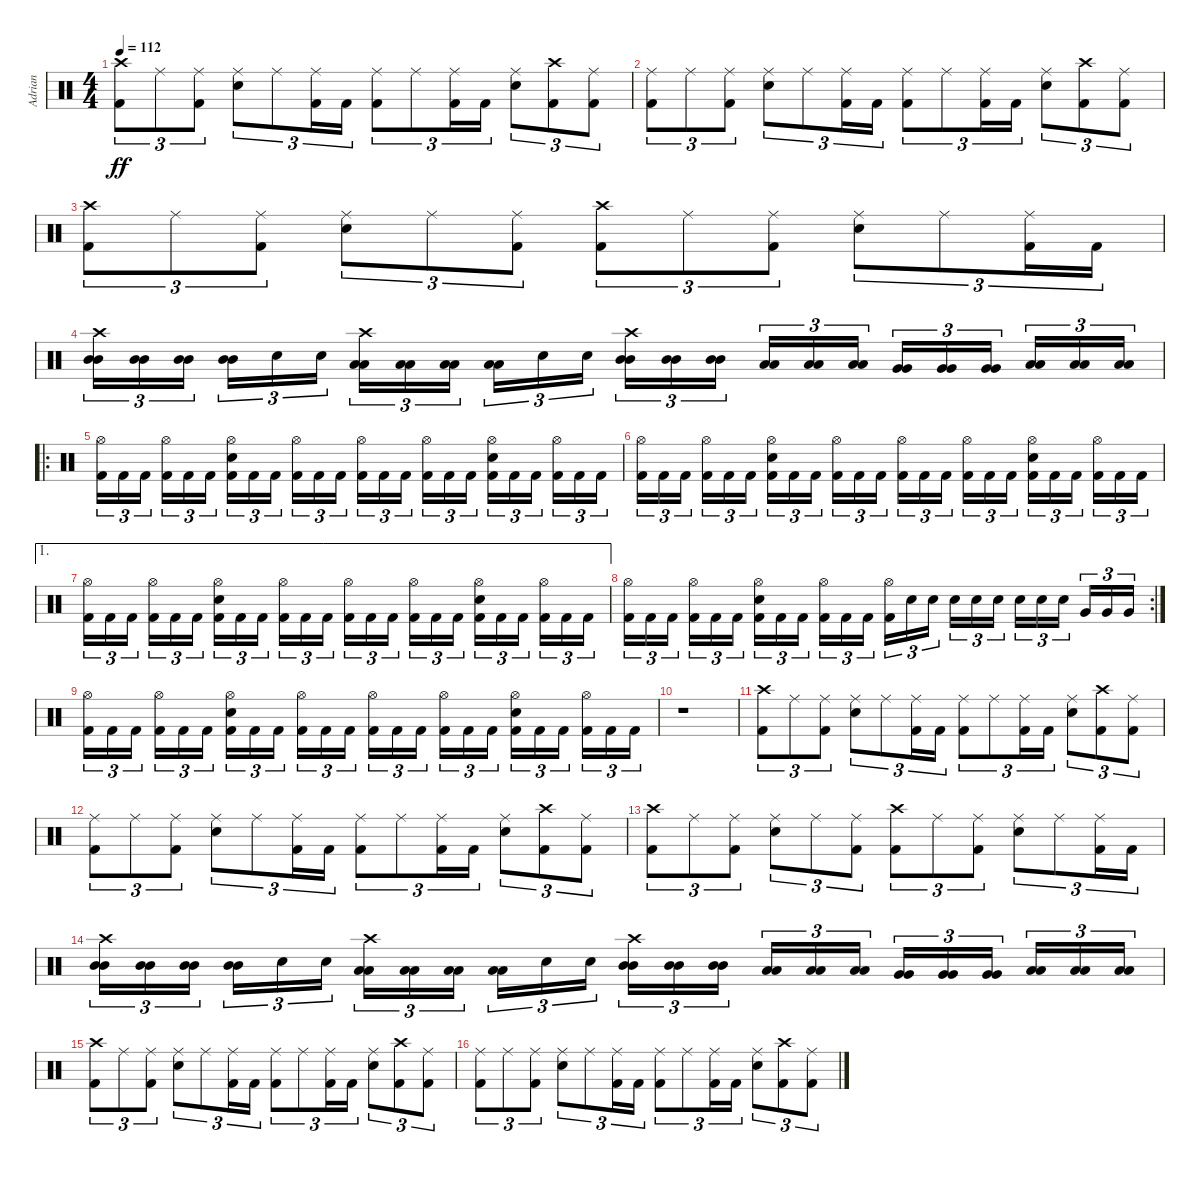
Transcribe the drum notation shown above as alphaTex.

\track ("Adrian" "Adrian") {instrument percussion}
\staff {score}
\articulation defaults
\ts (4 4)
\tempo 112
\clef neutral
\ks c
("Crash high (hit)" "Kick (hit) 2").8{tu (3 2) dy ff} "Ride (middle)".8{tu (3 2)} ("Ride (middle)" "Kick (hit) 2").8{tu (3 2)} ("Ride (middle)" "Electric Snare (hit)").8{tu (3 2)} "Ride (middle)".8{tu (3 2)} ("Ride (middle)" "Kick (hit) 2").16{tu (3 2)} "Kick (hit) 2".16{tu (3 2)} ("Ride (middle)" "Kick (hit) 2").8{tu (3 2)} "Ride (middle)".8{tu (3 2)} ("Ride (middle)" "Kick (hit) 2").16{tu (3 2)} "Kick (hit) 2".16{tu (3 2)} ("Ride (middle)" "Electric Snare (hit)").8{tu (3 2)} ("Crash high (hit)" "Kick (hit) 2").8{tu (3 2)} ("Ride (middle)" "Kick (hit) 2").8{tu (3 2)} |
("Ride (middle)" "Kick (hit) 2").8{tu (3 2)} "Ride (middle)".8{tu (3 2)} ("Ride (middle)" "Kick (hit) 2").8{tu (3 2)} ("Ride (middle)" "Electric Snare (hit)").8{tu (3 2)} "Ride (middle)".8{tu (3 2)} ("Ride (middle)" "Kick (hit) 2").16{tu (3 2)} "Kick (hit) 2".16{tu (3 2)} ("Ride (middle)" "Kick (hit) 2").8{tu (3 2)} "Ride (middle)".8{tu (3 2)} ("Ride (middle)" "Kick (hit) 2").16{tu (3 2)} "Kick (hit) 2".16{tu (3 2)} ("Ride (middle)" "Electric Snare (hit)").8{tu (3 2)} ("Crash high (hit)" "Kick (hit) 2").8{tu (3 2)} ("Ride (middle)" "Kick (hit) 2").8{tu (3 2)} |
("Crash high (hit)" "Kick (hit) 2").8{tu (3 2)} "Ride (middle)".8{tu (3 2)} ("Ride (middle)" "Kick (hit) 2").8{tu (3 2)} ("Ride (middle)" "Electric Snare (hit)").8{tu (3 2)} "Ride (middle)".8{tu (3 2)} ("Ride (middle)" "Kick (hit) 2").8{tu (3 2)} ("Crash high (hit)" "Kick (hit) 2").8{tu (3 2)} "Ride (middle)".8{tu (3 2)} ("Ride (middle)" "Kick (hit) 2").8{tu (3 2)} ("Ride (middle)" "Electric Snare (hit)").8{tu (3 2)} "Ride (middle)".8{tu (3 2)} ("Ride (middle)" "Kick (hit) 2").16{tu (3 2)} "Kick (hit) 2".16{tu (3 2)} |
("Mid Tom (hit)" "Mid Tom (hit)" "Crash high (hit)").16{tu (3 2)} ("Mid Tom (hit)" "Mid Tom (hit)").16{tu (3 2)} ("Mid Tom (hit)" "Mid Tom (hit)").16{tu (3 2) beam splitsecondary} ("Mid Tom (hit)" "Mid Tom (hit)").16{tu (3 2)} "Electric Snare (hit)".16{tu (3 2)} "Electric Snare (hit)".16{tu (3 2)} ("Low Tom (hit)" "Low Tom (hit)" "Crash high (hit)").16{tu (3 2)} ("Low Tom (hit)" "Low Tom (hit)").16{tu (3 2)} ("Low Tom (hit)" "Low Tom (hit)").16{tu (3 2) beam splitsecondary} ("Low Tom (hit)" "Low Tom (hit)").16{tu (3 2)} "Electric Snare (hit)".16{tu (3 2)} "Electric Snare (hit)".16{tu (3 2)} ("Mid Tom (hit)" "Mid Tom (hit)" "Crash high (hit)").16{tu (3 2)} ("Mid Tom (hit)" "Mid Tom (hit)").16{tu (3 2)} ("Mid Tom (hit)" "Mid Tom (hit)").16{tu (3 2) beam splitsecondary} ("Low Tom (hit)" "Low Tom (hit)").16{tu (3 2)} ("Low Tom (hit)" "Low Tom (hit)").16{tu (3 2)} ("Low Tom (hit)" "Low Tom (hit)").16{tu (3 2)} ("Very Low Tom (hit)" "Very Low Tom (hit)").16{tu (3 2)} ("Very Low Tom (hit)" "Very Low Tom (hit)").16{tu (3 2)} ("Very Low Tom (hit)" "Very Low Tom (hit)").16{tu (3 2) beam splitsecondary} ("Low Floor Tom (hit)" "Low Floor Tom (hit)").16{tu (3 2)} ("Low Floor Tom (hit)" "Low Floor Tom (hit)").16{tu (3 2)} ("Low Floor Tom (hit)" "Low Floor Tom (hit)").16{tu (3 2)} |
\ro
("Hi-Hat (open)" "Kick (hit) 2").16{tu (3 2)} "Kick (hit) 2".16{tu (3 2)} "Kick (hit) 2".16{tu (3 2) beam splitsecondary} ("Hi-Hat (open)" "Kick (hit) 2").16{tu (3 2)} "Kick (hit) 2".16{tu (3 2)} "Kick (hit) 2".16{tu (3 2)} ("Hi-Hat (open)" "Electric Snare (hit)" "Kick (hit) 2").16{tu (3 2)} "Kick (hit) 2".16{tu (3 2)} "Kick (hit) 2".16{tu (3 2) beam splitsecondary} ("Hi-Hat (open)" "Kick (hit) 2").16{tu (3 2)} "Kick (hit) 2".16{tu (3 2)} "Kick (hit) 2".16{tu (3 2)} ("Hi-Hat (open)" "Kick (hit) 2").16{tu (3 2)} "Kick (hit) 2".16{tu (3 2)} "Kick (hit) 2".16{tu (3 2) beam splitsecondary} ("Hi-Hat (open)" "Kick (hit) 2").16{tu (3 2)} "Kick (hit) 2".16{tu (3 2)} "Kick (hit) 2".16{tu (3 2)} ("Hi-Hat (open)" "Electric Snare (hit)" "Kick (hit) 2").16{tu (3 2)} "Kick (hit) 2".16{tu (3 2)} "Kick (hit) 2".16{tu (3 2) beam splitsecondary} ("Hi-Hat (open)" "Kick (hit) 2").16{tu (3 2)} "Kick (hit) 2".16{tu (3 2)} "Kick (hit) 2".16{tu (3 2)} |
("Hi-Hat (open)" "Kick (hit) 2").16{tu (3 2)} "Kick (hit) 2".16{tu (3 2)} "Kick (hit) 2".16{tu (3 2) beam splitsecondary} ("Hi-Hat (open)" "Kick (hit) 2").16{tu (3 2)} "Kick (hit) 2".16{tu (3 2)} "Kick (hit) 2".16{tu (3 2)} ("Hi-Hat (open)" "Electric Snare (hit)" "Kick (hit) 2").16{tu (3 2)} "Kick (hit) 2".16{tu (3 2)} "Kick (hit) 2".16{tu (3 2) beam splitsecondary} ("Hi-Hat (open)" "Kick (hit) 2").16{tu (3 2)} "Kick (hit) 2".16{tu (3 2)} "Kick (hit) 2".16{tu (3 2)} ("Hi-Hat (open)" "Kick (hit) 2").16{tu (3 2)} "Kick (hit) 2".16{tu (3 2)} "Kick (hit) 2".16{tu (3 2) beam splitsecondary} ("Hi-Hat (open)" "Kick (hit) 2").16{tu (3 2)} "Kick (hit) 2".16{tu (3 2)} "Kick (hit) 2".16{tu (3 2)} ("Hi-Hat (open)" "Electric Snare (hit)" "Kick (hit) 2").16{tu (3 2)} "Kick (hit) 2".16{tu (3 2)} "Kick (hit) 2".16{tu (3 2) beam splitsecondary} ("Hi-Hat (open)" "Kick (hit) 2").16{tu (3 2)} "Kick (hit) 2".16{tu (3 2)} "Kick (hit) 2".16{tu (3 2)} |
\ae 1
("Hi-Hat (open)" "Kick (hit) 2").16{tu (3 2)} "Kick (hit) 2".16{tu (3 2)} "Kick (hit) 2".16{tu (3 2) beam splitsecondary} ("Hi-Hat (open)" "Kick (hit) 2").16{tu (3 2)} "Kick (hit) 2".16{tu (3 2)} "Kick (hit) 2".16{tu (3 2)} ("Hi-Hat (open)" "Electric Snare (hit)" "Kick (hit) 2").16{tu (3 2)} "Kick (hit) 2".16{tu (3 2)} "Kick (hit) 2".16{tu (3 2) beam splitsecondary} ("Hi-Hat (open)" "Kick (hit) 2").16{tu (3 2)} "Kick (hit) 2".16{tu (3 2)} "Kick (hit) 2".16{tu (3 2)} ("Hi-Hat (open)" "Kick (hit) 2").16{tu (3 2)} "Kick (hit) 2".16{tu (3 2)} "Kick (hit) 2".16{tu (3 2) beam splitsecondary} ("Hi-Hat (open)" "Kick (hit) 2").16{tu (3 2)} "Kick (hit) 2".16{tu (3 2)} "Kick (hit) 2".16{tu (3 2)} ("Hi-Hat (open)" "Electric Snare (hit)" "Kick (hit) 2").16{tu (3 2)} "Kick (hit) 2".16{tu (3 2)} "Kick (hit) 2".16{tu (3 2) beam splitsecondary} ("Hi-Hat (open)" "Kick (hit) 2").16{tu (3 2)} "Kick (hit) 2".16{tu (3 2)} "Kick (hit) 2".16{tu (3 2)} |
\rc 2
("Hi-Hat (open)" "Kick (hit) 2").16{tu (3 2)} "Kick (hit) 2".16{tu (3 2)} "Kick (hit) 2".16{tu (3 2) beam splitsecondary} ("Hi-Hat (open)" "Kick (hit) 2").16{tu (3 2)} "Kick (hit) 2".16{tu (3 2)} "Kick (hit) 2".16{tu (3 2)} ("Hi-Hat (open)" "Electric Snare (hit)" "Kick (hit) 2").16{tu (3 2)} "Kick (hit) 2".16{tu (3 2)} "Kick (hit) 2".16{tu (3 2) beam splitsecondary} ("Hi-Hat (open)" "Kick (hit) 2").16{tu (3 2)} "Kick (hit) 2".16{tu (3 2)} "Kick (hit) 2".16{tu (3 2)} ("Hi-Hat (open)" "Kick (hit) 2").16{tu (3 2)} "Electric Snare (hit)".16{tu (3 2)} "Electric Snare (hit)".16{tu (3 2) beam splitsecondary} "Electric Snare (hit)".16{tu (3 2)} "Electric Snare (hit)".16{tu (3 2)} "Electric Snare (hit)".16{tu (3 2)} "Electric Snare (hit)".16{tu (3 2)} "Electric Snare (hit)".16{tu (3 2)} "Electric Snare (hit)".16{tu (3 2) beam splitsecondary} "Very Low Tom (hit)".16{tu (3 2)} "Very Low Tom (hit)".16{tu (3 2)} "Very Low Tom (hit)".16{tu (3 2)} |
("Hi-Hat (open)" "Kick (hit) 2").16{tu (3 2)} "Kick (hit) 2".16{tu (3 2)} "Kick (hit) 2".16{tu (3 2) beam splitsecondary} ("Hi-Hat (open)" "Kick (hit) 2").16{tu (3 2)} "Kick (hit) 2".16{tu (3 2)} "Kick (hit) 2".16{tu (3 2)} ("Hi-Hat (open)" "Electric Snare (hit)" "Kick (hit) 2").16{tu (3 2)} "Kick (hit) 2".16{tu (3 2)} "Kick (hit) 2".16{tu (3 2) beam splitsecondary} ("Hi-Hat (open)" "Kick (hit) 2").16{tu (3 2)} "Kick (hit) 2".16{tu (3 2)} "Kick (hit) 2".16{tu (3 2)} ("Hi-Hat (open)" "Kick (hit) 2").16{tu (3 2)} "Kick (hit) 2".16{tu (3 2)} "Kick (hit) 2".16{tu (3 2) beam splitsecondary} ("Hi-Hat (open)" "Kick (hit) 2").16{tu (3 2)} "Kick (hit) 2".16{tu (3 2)} "Kick (hit) 2".16{tu (3 2)} ("Hi-Hat (open)" "Electric Snare (hit)" "Kick (hit) 2").16{tu (3 2)} "Kick (hit) 2".16{tu (3 2)} "Kick (hit) 2".16{tu (3 2) beam splitsecondary} ("Hi-Hat (open)" "Kick (hit) 2").16{tu (3 2)} "Kick (hit) 2".16{tu (3 2)} "Kick (hit) 2".16{tu (3 2)} |
r.1 |
("Crash high (hit)" "Kick (hit) 2").8{tu (3 2)} "Ride (middle)".8{tu (3 2)} ("Ride (middle)" "Kick (hit) 2").8{tu (3 2)} ("Ride (middle)" "Electric Snare (hit)").8{tu (3 2)} "Ride (middle)".8{tu (3 2)} ("Ride (middle)" "Kick (hit) 2").16{tu (3 2)} "Kick (hit) 2".16{tu (3 2)} ("Ride (middle)" "Kick (hit) 2").8{tu (3 2)} "Ride (middle)".8{tu (3 2)} ("Ride (middle)" "Kick (hit) 2").16{tu (3 2)} "Kick (hit) 2".16{tu (3 2)} ("Ride (middle)" "Electric Snare (hit)").8{tu (3 2)} ("Crash high (hit)" "Kick (hit) 2").8{tu (3 2)} ("Ride (middle)" "Kick (hit) 2").8{tu (3 2)} |
("Ride (middle)" "Kick (hit) 2").8{tu (3 2)} "Ride (middle)".8{tu (3 2)} ("Ride (middle)" "Kick (hit) 2").8{tu (3 2)} ("Ride (middle)" "Electric Snare (hit)").8{tu (3 2)} "Ride (middle)".8{tu (3 2)} ("Ride (middle)" "Kick (hit) 2").16{tu (3 2)} "Kick (hit) 2".16{tu (3 2)} ("Ride (middle)" "Kick (hit) 2").8{tu (3 2)} "Ride (middle)".8{tu (3 2)} ("Ride (middle)" "Kick (hit) 2").16{tu (3 2)} "Kick (hit) 2".16{tu (3 2)} ("Ride (middle)" "Electric Snare (hit)").8{tu (3 2)} ("Crash high (hit)" "Kick (hit) 2").8{tu (3 2)} ("Ride (middle)" "Kick (hit) 2").8{tu (3 2)} |
("Crash high (hit)" "Kick (hit) 2").8{tu (3 2)} "Ride (middle)".8{tu (3 2)} ("Ride (middle)" "Kick (hit) 2").8{tu (3 2)} ("Ride (middle)" "Electric Snare (hit)").8{tu (3 2)} "Ride (middle)".8{tu (3 2)} ("Ride (middle)" "Kick (hit) 2").8{tu (3 2)} ("Crash high (hit)" "Kick (hit) 2").8{tu (3 2)} "Ride (middle)".8{tu (3 2)} ("Ride (middle)" "Kick (hit) 2").8{tu (3 2)} ("Ride (middle)" "Electric Snare (hit)").8{tu (3 2)} "Ride (middle)".8{tu (3 2)} ("Ride (middle)" "Kick (hit) 2").16{tu (3 2)} "Kick (hit) 2".16{tu (3 2)} |
("Mid Tom (hit)" "Mid Tom (hit)" "Crash high (hit)").16{tu (3 2)} ("Mid Tom (hit)" "Mid Tom (hit)").16{tu (3 2)} ("Mid Tom (hit)" "Mid Tom (hit)").16{tu (3 2) beam splitsecondary} ("Mid Tom (hit)" "Mid Tom (hit)").16{tu (3 2)} "Electric Snare (hit)".16{tu (3 2)} "Electric Snare (hit)".16{tu (3 2)} ("Low Tom (hit)" "Low Tom (hit)" "Crash high (hit)").16{tu (3 2)} ("Low Tom (hit)" "Low Tom (hit)").16{tu (3 2)} ("Low Tom (hit)" "Low Tom (hit)").16{tu (3 2) beam splitsecondary} ("Low Tom (hit)" "Low Tom (hit)").16{tu (3 2)} "Electric Snare (hit)".16{tu (3 2)} "Electric Snare (hit)".16{tu (3 2)} ("Mid Tom (hit)" "Mid Tom (hit)" "Crash high (hit)").16{tu (3 2)} ("Mid Tom (hit)" "Mid Tom (hit)").16{tu (3 2)} ("Mid Tom (hit)" "Mid Tom (hit)").16{tu (3 2) beam splitsecondary} ("Low Tom (hit)" "Low Tom (hit)").16{tu (3 2)} ("Low Tom (hit)" "Low Tom (hit)").16{tu (3 2)} ("Low Tom (hit)" "Low Tom (hit)").16{tu (3 2)} ("Very Low Tom (hit)" "Very Low Tom (hit)").16{tu (3 2)} ("Very Low Tom (hit)" "Very Low Tom (hit)").16{tu (3 2)} ("Very Low Tom (hit)" "Very Low Tom (hit)").16{tu (3 2) beam splitsecondary} ("Low Floor Tom (hit)" "Low Floor Tom (hit)").16{tu (3 2)} ("Low Floor Tom (hit)" "Low Floor Tom (hit)").16{tu (3 2)} ("Low Floor Tom (hit)" "Low Floor Tom (hit)").16{tu (3 2)} |
("Crash high (hit)" "Kick (hit) 2").8{tu (3 2)} "Ride (middle)".8{tu (3 2)} ("Ride (middle)" "Kick (hit) 2").8{tu (3 2)} ("Ride (middle)" "Electric Snare (hit)").8{tu (3 2)} "Ride (middle)".8{tu (3 2)} ("Ride (middle)" "Kick (hit) 2").16{tu (3 2)} "Kick (hit) 2".16{tu (3 2)} ("Ride (middle)" "Kick (hit) 2").8{tu (3 2)} "Ride (middle)".8{tu (3 2)} ("Ride (middle)" "Kick (hit) 2").16{tu (3 2)} "Kick (hit) 2".16{tu (3 2)} ("Ride (middle)" "Electric Snare (hit)").8{tu (3 2)} ("Crash high (hit)" "Kick (hit) 2").8{tu (3 2)} ("Ride (middle)" "Kick (hit) 2").8{tu (3 2)} |
("Ride (middle)" "Kick (hit) 2").8{tu (3 2)} "Ride (middle)".8{tu (3 2)} ("Ride (middle)" "Kick (hit) 2").8{tu (3 2)} ("Ride (middle)" "Electric Snare (hit)").8{tu (3 2)} "Ride (middle)".8{tu (3 2)} ("Ride (middle)" "Kick (hit) 2").16{tu (3 2)} "Kick (hit) 2".16{tu (3 2)} ("Ride (middle)" "Kick (hit) 2").8{tu (3 2)} "Ride (middle)".8{tu (3 2)} ("Ride (middle)" "Kick (hit) 2").16{tu (3 2)} "Kick (hit) 2".16{tu (3 2)} ("Ride (middle)" "Electric Snare (hit)").8{tu (3 2)} ("Crash high (hit)" "Kick (hit) 2").8{tu (3 2)} ("Ride (middle)" "Kick (hit) 2").8{tu (3 2)}
